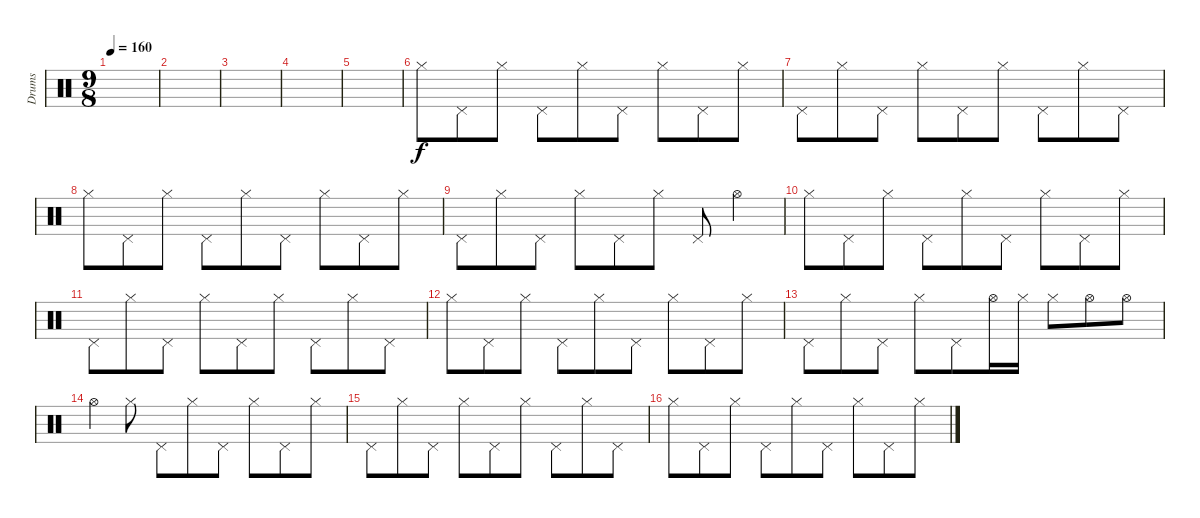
\track ("Drums" "Drums") {instrument percussion}
\staff {score}
\articulation defaults
\ts (9 8)
\tempo 160
\clef neutral
\ks c
|
|
|
|
|
"Hi-Hat (closed)".8 "Pedal Hi-Hat (hit)".8 "Hi-Hat (closed)".8 "Pedal Hi-Hat (hit)".8 "Hi-Hat (closed)".8 "Pedal Hi-Hat (hit)".8 "Hi-Hat (closed)".8 "Pedal Hi-Hat (hit)".8 "Hi-Hat (closed)".8 |
"Pedal Hi-Hat (hit)".8 "Hi-Hat (closed)".8 "Pedal Hi-Hat (hit)".8 "Hi-Hat (closed)".8 "Pedal Hi-Hat (hit)".8 "Hi-Hat (closed)".8 "Pedal Hi-Hat (hit)".8 "Hi-Hat (closed)".8 "Pedal Hi-Hat (hit)".8 |
"Hi-Hat (closed)".8 "Pedal Hi-Hat (hit)".8 "Hi-Hat (closed)".8 "Pedal Hi-Hat (hit)".8 "Hi-Hat (closed)".8 "Pedal Hi-Hat (hit)".8 "Hi-Hat (closed)".8 "Pedal Hi-Hat (hit)".8 "Hi-Hat (closed)".8 |
"Pedal Hi-Hat (hit)".8 "Hi-Hat (closed)".8 "Pedal Hi-Hat (hit)".8 "Hi-Hat (closed)".8 "Pedal Hi-Hat (hit)".8 "Hi-Hat (closed)".8 "Pedal Hi-Hat (hit)".8 "Hi-Hat (open)".4 |
"Hi-Hat (closed)".8 "Pedal Hi-Hat (hit)".8 "Hi-Hat (closed)".8 "Pedal Hi-Hat (hit)".8 "Hi-Hat (closed)".8 "Pedal Hi-Hat (hit)".8 "Hi-Hat (closed)".8 "Pedal Hi-Hat (hit)".8 "Hi-Hat (closed)".8 |
"Pedal Hi-Hat (hit)".8 "Hi-Hat (closed)".8 "Pedal Hi-Hat (hit)".8 "Hi-Hat (closed)".8 "Pedal Hi-Hat (hit)".8 "Hi-Hat (closed)".8 "Pedal Hi-Hat (hit)".8 "Hi-Hat (closed)".8 "Pedal Hi-Hat (hit)".8 |
"Hi-Hat (closed)".8 "Pedal Hi-Hat (hit)".8 "Hi-Hat (closed)".8 "Pedal Hi-Hat (hit)".8 "Hi-Hat (closed)".8 "Pedal Hi-Hat (hit)".8 "Hi-Hat (closed)".8 "Pedal Hi-Hat (hit)".8 "Hi-Hat (closed)".8 |
"Pedal Hi-Hat (hit)".8 "Hi-Hat (closed)".8 "Pedal Hi-Hat (hit)".8 "Hi-Hat (closed)".8 "Pedal Hi-Hat (hit)".8 "Hi-Hat (open)".16 "Hi-Hat (closed)".16 "Hi-Hat (closed)".8 "Hi-Hat (open)".8 "Hi-Hat (open)".8 |
"Hi-Hat (open)".4 "Hi-Hat (closed)".8 "Pedal Hi-Hat (hit)".8 "Hi-Hat (closed)".8 "Pedal Hi-Hat (hit)".8 "Hi-Hat (closed)".8 "Pedal Hi-Hat (hit)".8 "Hi-Hat (closed)".8 |
"Pedal Hi-Hat (hit)".8 "Hi-Hat (closed)".8 "Pedal Hi-Hat (hit)".8 "Hi-Hat (closed)".8 "Pedal Hi-Hat (hit)".8 "Hi-Hat (closed)".8 "Pedal Hi-Hat (hit)".8 "Hi-Hat (closed)".8 "Pedal Hi-Hat (hit)".8 |
"Hi-Hat (closed)".8 "Pedal Hi-Hat (hit)".8 "Hi-Hat (closed)".8 "Pedal Hi-Hat (hit)".8 "Hi-Hat (closed)".8 "Pedal Hi-Hat (hit)".8 "Hi-Hat (closed)".8 "Pedal Hi-Hat (hit)".8 "Hi-Hat (closed)".8
